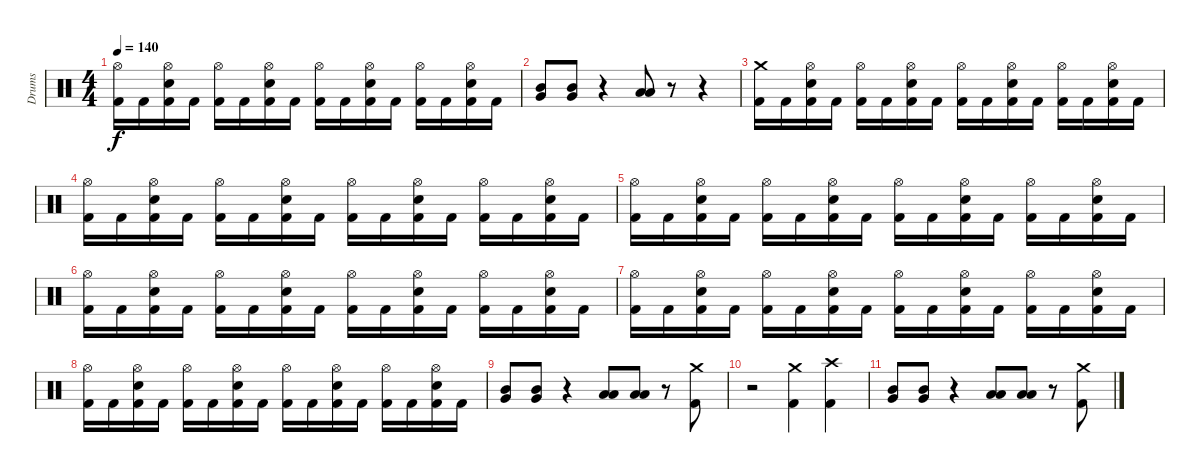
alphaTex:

\track ("Drums" "Drums") {instrument percussion}
\staff {score}
\articulation defaults
\ts (4 4)
\tempo 140
\clef neutral
\ks c
("Hi-Hat (open)" "Kick (hit) 2").16{dy f} "Kick (hit) 2".16 ("Electric Snare (hit)" "Hi-Hat (open)" "Kick (hit) 2").16 "Kick (hit) 2".16 ("Hi-Hat (open)" "Kick (hit) 2").16 "Kick (hit) 2".16 ("Kick (hit) 2" "Electric Snare (hit)" "Hi-Hat (open)").16 "Kick (hit) 2".16 ("Hi-Hat (open)" "Kick (hit) 2").16 "Kick (hit) 2".16 ("Electric Snare (hit)" "Hi-Hat (open)" "Kick (hit) 2").16 "Kick (hit) 2".16 ("Hi-Hat (open)" "Kick (hit) 2").16 "Kick (hit) 2".16 ("Kick (hit) 2" "Electric Snare (hit)" "Hi-Hat (open)").16 "Kick (hit) 2".16 |
("Mid Tom (hit)" "Very Low Tom (hit)").8 ("Mid Tom (hit)" "Very Low Tom (hit)").8 r.4 ("Low Tom (hit)" "Low Floor Tom (hit)").8 r.8 r.4 |
("Crash medium (hit)" "Kick (hit) 2").16 "Kick (hit) 2".16 ("Electric Snare (hit)" "Hi-Hat (open)" "Kick (hit) 2").16 "Kick (hit) 2".16 ("Hi-Hat (open)" "Kick (hit) 2").16 "Kick (hit) 2".16 ("Electric Snare (hit)" "Hi-Hat (open)" "Kick (hit) 2").16 "Kick (hit) 2".16 ("Hi-Hat (open)" "Kick (hit) 2").16 "Kick (hit) 2".16 ("Electric Snare (hit)" "Hi-Hat (open)" "Kick (hit) 2").16 "Kick (hit) 2".16 ("Hi-Hat (open)" "Kick (hit) 2").16 "Kick (hit) 2".16 ("Kick (hit) 2" "Electric Snare (hit)" "Hi-Hat (open)").16 "Kick (hit) 2".16 |
("Hi-Hat (open)" "Kick (hit) 2").16 "Kick (hit) 2".16 ("Electric Snare (hit)" "Hi-Hat (open)" "Kick (hit) 2").16 "Kick (hit) 2".16 ("Hi-Hat (open)" "Kick (hit) 2").16 "Kick (hit) 2".16 ("Kick (hit) 2" "Electric Snare (hit)" "Hi-Hat (open)").16 "Kick (hit) 2".16 ("Hi-Hat (open)" "Kick (hit) 2").16 "Kick (hit) 2".16 ("Electric Snare (hit)" "Hi-Hat (open)" "Kick (hit) 2").16 "Kick (hit) 2".16 ("Hi-Hat (open)" "Kick (hit) 2").16 "Kick (hit) 2".16 ("Kick (hit) 2" "Electric Snare (hit)" "Hi-Hat (open)").16 "Kick (hit) 2".16 |
("Hi-Hat (open)" "Kick (hit) 2").16 "Kick (hit) 2".16 ("Electric Snare (hit)" "Hi-Hat (open)" "Kick (hit) 2").16 "Kick (hit) 2".16 ("Hi-Hat (open)" "Kick (hit) 2").16 "Kick (hit) 2".16 ("Kick (hit) 2" "Electric Snare (hit)" "Hi-Hat (open)").16 "Kick (hit) 2".16 ("Hi-Hat (open)" "Kick (hit) 2").16 "Kick (hit) 2".16 ("Electric Snare (hit)" "Hi-Hat (open)" "Kick (hit) 2").16 "Kick (hit) 2".16 ("Hi-Hat (open)" "Kick (hit) 2").16 "Kick (hit) 2".16 ("Kick (hit) 2" "Electric Snare (hit)" "Hi-Hat (open)").16 "Kick (hit) 2".16 |
("Hi-Hat (open)" "Kick (hit) 2").16 "Kick (hit) 2".16 ("Electric Snare (hit)" "Hi-Hat (open)" "Kick (hit) 2").16 "Kick (hit) 2".16 ("Hi-Hat (open)" "Kick (hit) 2").16 "Kick (hit) 2".16 ("Kick (hit) 2" "Electric Snare (hit)" "Hi-Hat (open)").16 "Kick (hit) 2".16 ("Hi-Hat (open)" "Kick (hit) 2").16 "Kick (hit) 2".16 ("Electric Snare (hit)" "Hi-Hat (open)" "Kick (hit) 2").16 "Kick (hit) 2".16 ("Hi-Hat (open)" "Kick (hit) 2").16 "Kick (hit) 2".16 ("Kick (hit) 2" "Electric Snare (hit)" "Hi-Hat (open)").16 "Kick (hit) 2".16 |
("Hi-Hat (open)" "Kick (hit) 2").16 "Kick (hit) 2".16 ("Electric Snare (hit)" "Hi-Hat (open)" "Kick (hit) 2").16 "Kick (hit) 2".16 ("Hi-Hat (open)" "Kick (hit) 2").16 "Kick (hit) 2".16 ("Kick (hit) 2" "Electric Snare (hit)" "Hi-Hat (open)").16 "Kick (hit) 2".16 ("Hi-Hat (open)" "Kick (hit) 2").16 "Kick (hit) 2".16 ("Electric Snare (hit)" "Hi-Hat (open)" "Kick (hit) 2").16 "Kick (hit) 2".16 ("Hi-Hat (open)" "Kick (hit) 2").16 "Kick (hit) 2".16 ("Kick (hit) 2" "Electric Snare (hit)" "Hi-Hat (open)").16 "Kick (hit) 2".16 |
("Hi-Hat (open)" "Kick (hit) 2").16 "Kick (hit) 2".16 ("Electric Snare (hit)" "Hi-Hat (open)" "Kick (hit) 2").16 "Kick (hit) 2".16 ("Hi-Hat (open)" "Kick (hit) 2").16 "Kick (hit) 2".16 ("Kick (hit) 2" "Electric Snare (hit)" "Hi-Hat (open)").16 "Kick (hit) 2".16 ("Hi-Hat (open)" "Kick (hit) 2").16 "Kick (hit) 2".16 ("Electric Snare (hit)" "Hi-Hat (open)" "Kick (hit) 2").16 "Kick (hit) 2".16 ("Hi-Hat (open)" "Kick (hit) 2").16 "Kick (hit) 2".16 ("Kick (hit) 2" "Electric Snare (hit)" "Hi-Hat (open)").16 "Kick (hit) 2".16 |
("Mid Tom (hit)" "Very Low Tom (hit)").8 ("Mid Tom (hit)" "Very Low Tom (hit)").8 r.4 ("Low Tom (hit)" "Low Floor Tom (hit)").8 ("Low Tom (hit)" "Low Floor Tom (hit)").8 r.8 ("Crash medium (hit)" "Kick (hit) 2").8 |
r.2 ("Kick (hit) 2" "Crash medium (hit)").4 ("Kick (hit) 2" "Crash high (hit)").4 |
("Mid Tom (hit)" "Very Low Tom (hit)").8 ("Mid Tom (hit)" "Very Low Tom (hit)").8 r.4 ("Low Tom (hit)" "Low Floor Tom (hit)").8 ("Low Tom (hit)" "Low Floor Tom (hit)").8 r.8 ("Crash medium (hit)" "Kick (hit) 2").8
